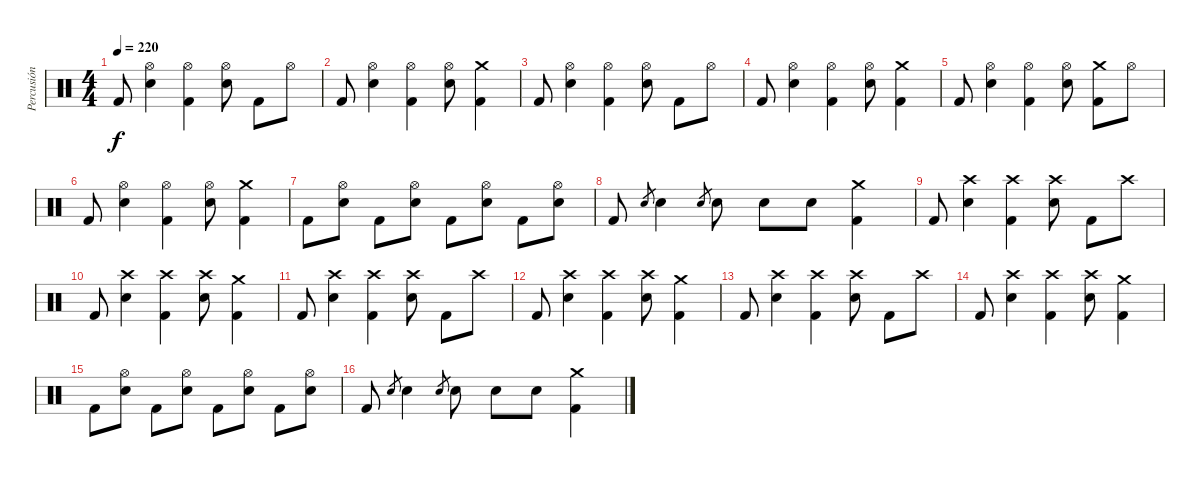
\track ("Percusión" "Percusión") {instrument percussion}
\staff {score}
\articulation defaults
\ts (4 4)
\tempo 220
\clef neutral
\ks c "Kick (hit) 2".8{dy f}
("Hi-Hat (open)" "Snare (hit) 2").4 ("Hi-Hat (open)" "Kick (hit) 2").4 ("Hi-Hat (open)" "Snare (hit) 2").8 "Kick (hit) 2".8 "Hi-Hat (open)".8 |
"Kick (hit) 2".8 ("Hi-Hat (open)" "Snare (hit) 2").4 ("Hi-Hat (open)" "Kick (hit) 2").4 ("Hi-Hat (open)" "Snare (hit) 2").8 ("Crash medium (hit)" "Kick (hit) 2").4 |
"Kick (hit) 2".8 ("Hi-Hat (open)" "Snare (hit) 2").4 ("Hi-Hat (open)" "Kick (hit) 2").4 ("Hi-Hat (open)" "Snare (hit) 2").8 "Kick (hit) 2".8 "Hi-Hat (open)".8 |
"Kick (hit) 2".8 ("Hi-Hat (open)" "Snare (hit) 2").4 ("Hi-Hat (open)" "Kick (hit) 2").4 ("Hi-Hat (open)" "Snare (hit) 2").8 ("Crash medium (hit)" "Kick (hit) 2").4 |
"Kick (hit) 2".8 ("Hi-Hat (open)" "Snare (hit) 2").4 ("Hi-Hat (open)" "Kick (hit) 2").4 ("Hi-Hat (open)" "Snare (hit) 2").8 ("Crash medium (hit)" "Kick (hit) 2").8 "Hi-Hat (open)".8 |
"Kick (hit) 2".8 ("Hi-Hat (open)" "Snare (hit) 2").4 ("Hi-Hat (open)" "Kick (hit) 2").4 ("Hi-Hat (open)" "Snare (hit) 2").8 ("Crash medium (hit)" "Kick (hit) 2").4 |
"Kick (hit) 2".8 ("Hi-Hat (open)" "Snare (hit) 2").8 "Kick (hit) 2".8 ("Hi-Hat (open)" "Snare (hit) 2").8 "Kick (hit) 2".8 ("Hi-Hat (open)" "Snare (hit) 2").8 "Kick (hit) 2".8 ("Hi-Hat (open)" "Snare (hit) 2").8 |
"Kick (hit) 2".8 "Snare (hit) 2".8{gr} "Snare (hit) 2".4 "Snare (hit) 2".8{gr} "Snare (hit) 2".8 "Snare (hit) 2".8 "Snare (hit) 2".8 ("Crash medium (hit)" "Kick (hit) 2").4 |
"Kick (hit) 2".8 ("Crash high (hit)" "Snare (hit) 2").4 ("Crash high (hit)" "Kick (hit) 2").4 ("Crash high (hit)" "Snare (hit) 2").8 "Kick (hit) 2".8 "Crash high (hit)".8 |
"Kick (hit) 2".8 ("Crash high (hit)" "Snare (hit) 2").4 ("Crash high (hit)" "Kick (hit) 2").4 ("Crash high (hit)" "Snare (hit) 2").8 ("Crash medium (hit)" "Kick (hit) 2").4 |
"Kick (hit) 2".8 ("Crash high (hit)" "Snare (hit) 2").4 ("Crash high (hit)" "Kick (hit) 2").4 ("Crash high (hit)" "Snare (hit) 2").8 "Kick (hit) 2".8 "Crash high (hit)".8 |
"Kick (hit) 2".8 ("Crash high (hit)" "Snare (hit) 2").4 ("Crash high (hit)" "Kick (hit) 2").4 ("Crash high (hit)" "Snare (hit) 2").8 ("Crash medium (hit)" "Kick (hit) 2").4 |
"Kick (hit) 2".8 ("Crash high (hit)" "Snare (hit) 2").4 ("Crash high (hit)" "Kick (hit) 2").4 ("Crash high (hit)" "Snare (hit) 2").8 "Kick (hit) 2".8 "Crash high (hit)".8 |
"Kick (hit) 2".8 ("Crash high (hit)" "Snare (hit) 2").4 ("Crash high (hit)" "Kick (hit) 2").4 ("Crash high (hit)" "Snare (hit) 2").8 ("Crash medium (hit)" "Kick (hit) 2").4 |
"Kick (hit) 2".8 ("Hi-Hat (open)" "Snare (hit) 2").8 "Kick (hit) 2".8 ("Hi-Hat (open)" "Snare (hit) 2").8 "Kick (hit) 2".8 ("Hi-Hat (open)" "Snare (hit) 2").8 "Kick (hit) 2".8 ("Hi-Hat (open)" "Snare (hit) 2").8 |
"Kick (hit) 2".8 "Snare (hit) 2".8{gr} "Snare (hit) 2".4 "Snare (hit) 2".8{gr} "Snare (hit) 2".8 "Snare (hit) 2".8 "Snare (hit) 2".8 ("Crash medium (hit)" "Kick (hit) 2").4
